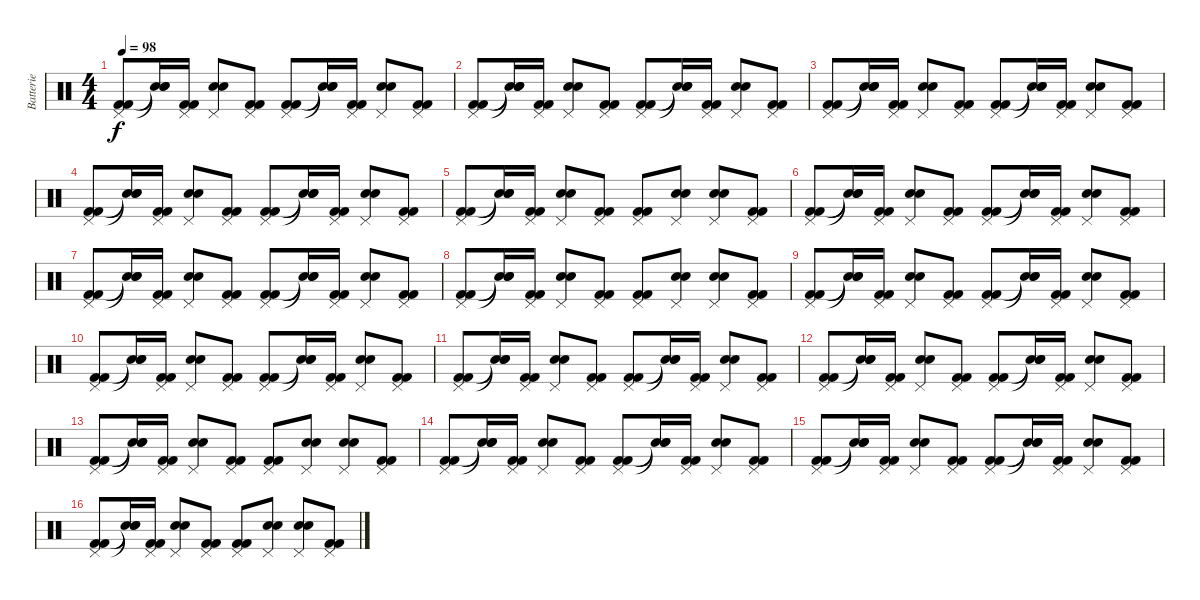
\track ("Batterie" "Batterie") {instrument percussion}
\staff {score}
\articulation defaults
\ts (4 4)
\tempo 98
\clef neutral
\ks c
("Pedal Hi-Hat (hit)" "Kick (hit) 2" "Kick (hit) 2").8{dy f} ("Snare (hit)"{t} "Snare (hit)"{t} "Snare (hit)"{t}).16 ("Pedal Hi-Hat (hit)" "Kick (hit) 2" "Kick (hit) 2").16 ("Pedal Hi-Hat (hit)" "Electric Snare (hit)" "Electric Snare (hit)").8 ("Pedal Hi-Hat (hit)" "Kick (hit) 2" "Kick (hit) 2").8 ("Pedal Hi-Hat (hit)" "Kick (hit) 2" "Kick (hit) 2").8 ("Snare (hit)"{t} "Snare (hit)"{t} "Snare (hit)"{t}).16 ("Pedal Hi-Hat (hit)" "Kick (hit) 2" "Kick (hit) 2").16 ("Pedal Hi-Hat (hit)" "Electric Snare (hit)" "Electric Snare (hit)").8 ("Pedal Hi-Hat (hit)" "Kick (hit) 2" "Kick (hit) 2").8 |
("Pedal Hi-Hat (hit)" "Kick (hit) 2" "Kick (hit) 2").8 ("Snare (hit)"{t} "Snare (hit)"{t} "Snare (hit)"{t}).16 ("Pedal Hi-Hat (hit)" "Kick (hit) 2" "Kick (hit) 2").16 ("Pedal Hi-Hat (hit)" "Electric Snare (hit)" "Electric Snare (hit)").8 ("Pedal Hi-Hat (hit)" "Kick (hit) 2" "Kick (hit) 2").8 ("Pedal Hi-Hat (hit)" "Kick (hit) 2" "Kick (hit) 2").8 ("Snare (hit)"{t} "Snare (hit)"{t} "Snare (hit)"{t}).16 ("Pedal Hi-Hat (hit)" "Kick (hit) 2" "Kick (hit) 2").16 ("Pedal Hi-Hat (hit)" "Electric Snare (hit)" "Electric Snare (hit)").8 ("Pedal Hi-Hat (hit)" "Kick (hit) 2" "Kick (hit) 2").8 |
("Pedal Hi-Hat (hit)" "Kick (hit) 2" "Kick (hit) 2").8 ("Snare (hit)"{t} "Snare (hit)"{t} "Snare (hit)"{t}).16 ("Pedal Hi-Hat (hit)" "Kick (hit) 2" "Kick (hit) 2").16 ("Pedal Hi-Hat (hit)" "Electric Snare (hit)" "Electric Snare (hit)").8 ("Pedal Hi-Hat (hit)" "Kick (hit) 2" "Kick (hit) 2").8 ("Pedal Hi-Hat (hit)" "Kick (hit) 2" "Kick (hit) 2").8 ("Snare (hit)"{t} "Snare (hit)"{t} "Snare (hit)"{t}).16 ("Pedal Hi-Hat (hit)" "Kick (hit) 2" "Kick (hit) 2").16 ("Pedal Hi-Hat (hit)" "Electric Snare (hit)" "Electric Snare (hit)").8 ("Pedal Hi-Hat (hit)" "Kick (hit) 2" "Kick (hit) 2").8 |
("Pedal Hi-Hat (hit)" "Kick (hit) 2" "Kick (hit) 2").8 ("Snare (hit)"{t} "Snare (hit)"{t} "Snare (hit)"{t}).16 ("Pedal Hi-Hat (hit)" "Kick (hit) 2" "Kick (hit) 2").16 ("Pedal Hi-Hat (hit)" "Electric Snare (hit)" "Electric Snare (hit)").8 ("Pedal Hi-Hat (hit)" "Kick (hit) 2" "Kick (hit) 2").8 ("Pedal Hi-Hat (hit)" "Kick (hit) 2" "Kick (hit) 2").8 ("Snare (hit)"{t} "Snare (hit)"{t} "Snare (hit)"{t}).16 ("Pedal Hi-Hat (hit)" "Kick (hit) 2" "Kick (hit) 2").16 ("Pedal Hi-Hat (hit)" "Electric Snare (hit)" "Electric Snare (hit)").8 ("Pedal Hi-Hat (hit)" "Kick (hit) 2" "Kick (hit) 2").8 |
("Pedal Hi-Hat (hit)" "Kick (hit) 2" "Kick (hit) 2").8 ("Snare (hit)"{t} "Snare (hit)"{t} "Snare (hit)"{t}).16 ("Pedal Hi-Hat (hit)" "Kick (hit) 2" "Kick (hit) 2").16 ("Pedal Hi-Hat (hit)" "Electric Snare (hit)" "Electric Snare (hit)").8 ("Pedal Hi-Hat (hit)" "Kick (hit) 2" "Kick (hit) 2").8 ("Pedal Hi-Hat (hit)" "Kick (hit) 2" "Kick (hit) 2").8 ("Pedal Hi-Hat (hit)" "Electric Snare (hit)" "Electric Snare (hit)").8 ("Pedal Hi-Hat (hit)" "Electric Snare (hit)" "Electric Snare (hit)").8 ("Pedal Hi-Hat (hit)" "Kick (hit) 2" "Kick (hit) 2").8 |
("Pedal Hi-Hat (hit)" "Kick (hit) 2" "Kick (hit) 2").8 ("Snare (hit)"{t} "Snare (hit)"{t} "Snare (hit)"{t}).16 ("Pedal Hi-Hat (hit)" "Kick (hit) 2" "Kick (hit) 2").16 ("Pedal Hi-Hat (hit)" "Electric Snare (hit)" "Electric Snare (hit)").8 ("Pedal Hi-Hat (hit)" "Kick (hit) 2" "Kick (hit) 2").8 ("Pedal Hi-Hat (hit)" "Kick (hit) 2" "Kick (hit) 2").8 ("Snare (hit)"{t} "Snare (hit)"{t} "Snare (hit)"{t}).16 ("Pedal Hi-Hat (hit)" "Kick (hit) 2" "Kick (hit) 2").16 ("Pedal Hi-Hat (hit)" "Electric Snare (hit)" "Electric Snare (hit)").8 ("Pedal Hi-Hat (hit)" "Kick (hit) 2" "Kick (hit) 2").8 |
("Pedal Hi-Hat (hit)" "Kick (hit) 2" "Kick (hit) 2").8 ("Snare (hit)"{t} "Snare (hit)"{t} "Snare (hit)"{t}).16 ("Pedal Hi-Hat (hit)" "Kick (hit) 2" "Kick (hit) 2").16 ("Pedal Hi-Hat (hit)" "Electric Snare (hit)" "Electric Snare (hit)").8 ("Pedal Hi-Hat (hit)" "Kick (hit) 2" "Kick (hit) 2").8 ("Pedal Hi-Hat (hit)" "Kick (hit) 2" "Kick (hit) 2").8 ("Snare (hit)"{t} "Snare (hit)"{t} "Snare (hit)"{t}).16 ("Pedal Hi-Hat (hit)" "Kick (hit) 2" "Kick (hit) 2").16 ("Pedal Hi-Hat (hit)" "Electric Snare (hit)" "Electric Snare (hit)").8 ("Pedal Hi-Hat (hit)" "Kick (hit) 2" "Kick (hit) 2").8 |
("Pedal Hi-Hat (hit)" "Kick (hit) 2" "Kick (hit) 2").8 ("Snare (hit)"{t} "Snare (hit)"{t} "Snare (hit)"{t}).16 ("Pedal Hi-Hat (hit)" "Kick (hit) 2" "Kick (hit) 2").16 ("Pedal Hi-Hat (hit)" "Electric Snare (hit)" "Electric Snare (hit)").8 ("Pedal Hi-Hat (hit)" "Kick (hit) 2" "Kick (hit) 2").8 ("Pedal Hi-Hat (hit)" "Kick (hit) 2" "Kick (hit) 2").8 ("Pedal Hi-Hat (hit)" "Electric Snare (hit)" "Electric Snare (hit)").8 ("Pedal Hi-Hat (hit)" "Electric Snare (hit)" "Electric Snare (hit)").8 ("Pedal Hi-Hat (hit)" "Kick (hit) 2" "Kick (hit) 2").8 |
("Pedal Hi-Hat (hit)" "Kick (hit) 2" "Kick (hit) 2").8 ("Snare (hit)"{t} "Snare (hit)"{t} "Snare (hit)"{t}).16 ("Pedal Hi-Hat (hit)" "Kick (hit) 2" "Kick (hit) 2").16 ("Pedal Hi-Hat (hit)" "Electric Snare (hit)" "Electric Snare (hit)").8 ("Pedal Hi-Hat (hit)" "Kick (hit) 2" "Kick (hit) 2").8 ("Pedal Hi-Hat (hit)" "Kick (hit) 2" "Kick (hit) 2").8 ("Snare (hit)"{t} "Snare (hit)"{t} "Snare (hit)"{t}).16 ("Pedal Hi-Hat (hit)" "Kick (hit) 2" "Kick (hit) 2").16 ("Pedal Hi-Hat (hit)" "Electric Snare (hit)" "Electric Snare (hit)").8 ("Pedal Hi-Hat (hit)" "Kick (hit) 2" "Kick (hit) 2").8 |
("Pedal Hi-Hat (hit)" "Kick (hit) 2" "Kick (hit) 2").8 ("Snare (hit)"{t} "Snare (hit)"{t} "Snare (hit)"{t}).16 ("Pedal Hi-Hat (hit)" "Kick (hit) 2" "Kick (hit) 2").16 ("Pedal Hi-Hat (hit)" "Electric Snare (hit)" "Electric Snare (hit)").8 ("Pedal Hi-Hat (hit)" "Kick (hit) 2" "Kick (hit) 2").8 ("Pedal Hi-Hat (hit)" "Kick (hit) 2" "Kick (hit) 2").8 ("Snare (hit)"{t} "Snare (hit)"{t} "Snare (hit)"{t}).16 ("Pedal Hi-Hat (hit)" "Kick (hit) 2" "Kick (hit) 2").16 ("Pedal Hi-Hat (hit)" "Electric Snare (hit)" "Electric Snare (hit)").8 ("Pedal Hi-Hat (hit)" "Kick (hit) 2" "Kick (hit) 2").8 |
("Pedal Hi-Hat (hit)" "Kick (hit) 2" "Kick (hit) 2").8 ("Snare (hit)"{t} "Snare (hit)"{t} "Snare (hit)"{t}).16 ("Pedal Hi-Hat (hit)" "Kick (hit) 2" "Kick (hit) 2").16 ("Pedal Hi-Hat (hit)" "Electric Snare (hit)" "Electric Snare (hit)").8 ("Pedal Hi-Hat (hit)" "Kick (hit) 2" "Kick (hit) 2").8 ("Pedal Hi-Hat (hit)" "Kick (hit) 2" "Kick (hit) 2").8 ("Snare (hit)"{t} "Snare (hit)"{t} "Snare (hit)"{t}).16 ("Pedal Hi-Hat (hit)" "Kick (hit) 2" "Kick (hit) 2").16 ("Pedal Hi-Hat (hit)" "Electric Snare (hit)" "Electric Snare (hit)").8 ("Pedal Hi-Hat (hit)" "Kick (hit) 2" "Kick (hit) 2").8 |
("Pedal Hi-Hat (hit)" "Kick (hit) 2" "Kick (hit) 2").8 ("Snare (hit)"{t} "Snare (hit)"{t} "Snare (hit)"{t}).16 ("Pedal Hi-Hat (hit)" "Kick (hit) 2" "Kick (hit) 2").16 ("Pedal Hi-Hat (hit)" "Electric Snare (hit)" "Electric Snare (hit)").8 ("Pedal Hi-Hat (hit)" "Kick (hit) 2" "Kick (hit) 2").8 ("Pedal Hi-Hat (hit)" "Kick (hit) 2" "Kick (hit) 2").8 ("Snare (hit)"{t} "Snare (hit)"{t} "Snare (hit)"{t}).16 ("Pedal Hi-Hat (hit)" "Kick (hit) 2" "Kick (hit) 2").16 ("Pedal Hi-Hat (hit)" "Electric Snare (hit)" "Electric Snare (hit)").8 ("Pedal Hi-Hat (hit)" "Kick (hit) 2" "Kick (hit) 2").8 |
("Pedal Hi-Hat (hit)" "Kick (hit) 2" "Kick (hit) 2").8 ("Snare (hit)"{t} "Snare (hit)"{t} "Snare (hit)"{t}).16 ("Pedal Hi-Hat (hit)" "Kick (hit) 2" "Kick (hit) 2").16 ("Pedal Hi-Hat (hit)" "Electric Snare (hit)" "Electric Snare (hit)").8 ("Pedal Hi-Hat (hit)" "Kick (hit) 2" "Kick (hit) 2").8 ("Pedal Hi-Hat (hit)" "Kick (hit) 2" "Kick (hit) 2").8 ("Pedal Hi-Hat (hit)" "Electric Snare (hit)" "Electric Snare (hit)").8 ("Pedal Hi-Hat (hit)" "Electric Snare (hit)" "Electric Snare (hit)").8 ("Pedal Hi-Hat (hit)" "Kick (hit) 2" "Kick (hit) 2").8 |
("Pedal Hi-Hat (hit)" "Kick (hit) 2" "Kick (hit) 2").8 ("Snare (hit)"{t} "Snare (hit)"{t} "Snare (hit)"{t}).16 ("Pedal Hi-Hat (hit)" "Kick (hit) 2" "Kick (hit) 2").16 ("Pedal Hi-Hat (hit)" "Electric Snare (hit)" "Electric Snare (hit)").8 ("Pedal Hi-Hat (hit)" "Kick (hit) 2" "Kick (hit) 2").8 ("Pedal Hi-Hat (hit)" "Kick (hit) 2" "Kick (hit) 2").8 ("Snare (hit)"{t} "Snare (hit)"{t} "Snare (hit)"{t}).16 ("Pedal Hi-Hat (hit)" "Kick (hit) 2" "Kick (hit) 2").16 ("Pedal Hi-Hat (hit)" "Electric Snare (hit)" "Electric Snare (hit)").8 ("Pedal Hi-Hat (hit)" "Kick (hit) 2" "Kick (hit) 2").8 |
("Pedal Hi-Hat (hit)" "Kick (hit) 2" "Kick (hit) 2").8 ("Snare (hit)"{t} "Snare (hit)"{t} "Snare (hit)"{t}).16 ("Pedal Hi-Hat (hit)" "Kick (hit) 2" "Kick (hit) 2").16 ("Pedal Hi-Hat (hit)" "Electric Snare (hit)" "Electric Snare (hit)").8 ("Pedal Hi-Hat (hit)" "Kick (hit) 2" "Kick (hit) 2").8 ("Pedal Hi-Hat (hit)" "Kick (hit) 2" "Kick (hit) 2").8 ("Snare (hit)"{t} "Snare (hit)"{t} "Snare (hit)"{t}).16 ("Pedal Hi-Hat (hit)" "Kick (hit) 2" "Kick (hit) 2").16 ("Pedal Hi-Hat (hit)" "Electric Snare (hit)" "Electric Snare (hit)").8 ("Pedal Hi-Hat (hit)" "Kick (hit) 2" "Kick (hit) 2").8 |
("Pedal Hi-Hat (hit)" "Kick (hit) 2" "Kick (hit) 2").8 ("Snare (hit)"{t} "Snare (hit)"{t} "Snare (hit)"{t}).16 ("Pedal Hi-Hat (hit)" "Kick (hit) 2" "Kick (hit) 2").16 ("Pedal Hi-Hat (hit)" "Electric Snare (hit)" "Electric Snare (hit)").8 ("Pedal Hi-Hat (hit)" "Kick (hit) 2" "Kick (hit) 2").8 ("Pedal Hi-Hat (hit)" "Kick (hit) 2" "Kick (hit) 2").8 ("Pedal Hi-Hat (hit)" "Electric Snare (hit)" "Electric Snare (hit)").8 ("Pedal Hi-Hat (hit)" "Electric Snare (hit)" "Electric Snare (hit)").8 ("Pedal Hi-Hat (hit)" "Kick (hit) 2" "Kick (hit) 2").8
